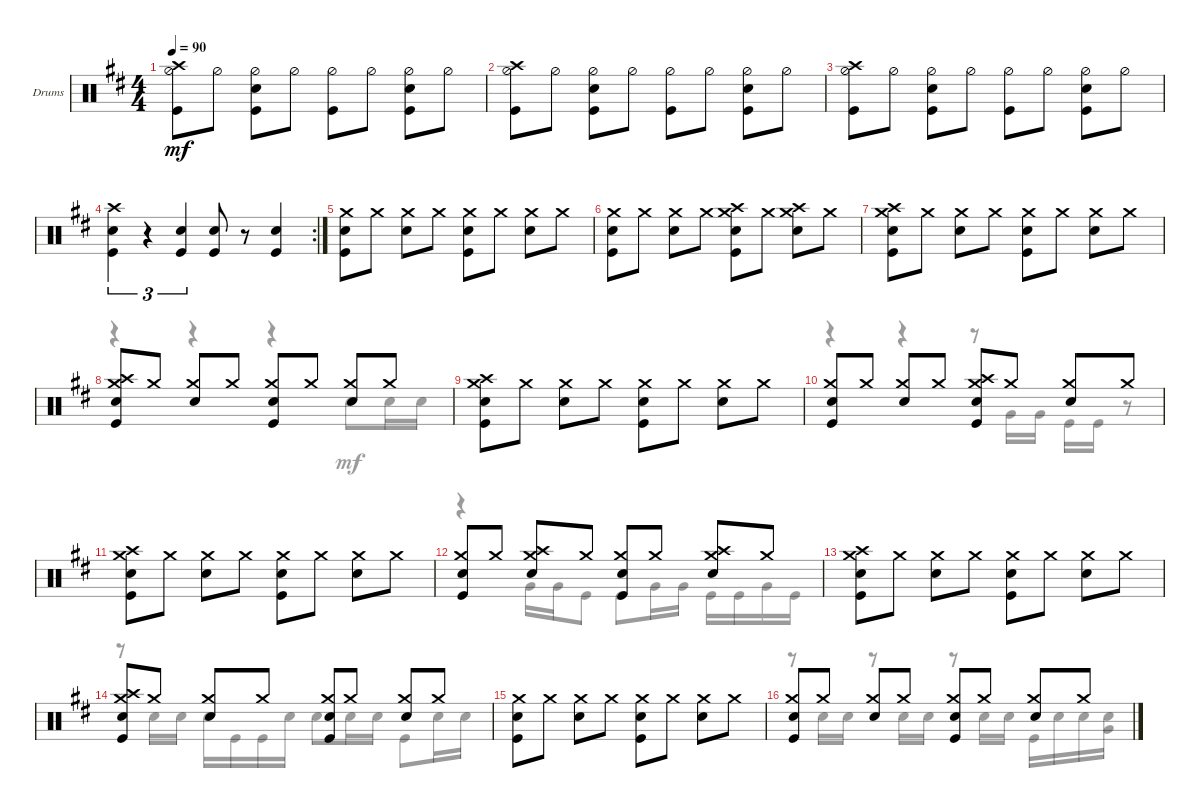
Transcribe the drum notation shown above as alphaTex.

\defaultSystemsLayout 4
\bracketExtendMode groupsimilarinstruments
\firstSystemTrackNameOrientation horizontal
\otherSystemsTrackNameOrientation horizontal
\track ("Drumkit" "Drums") {instrument percussion}
\staff {score}
\articulation defaults
\voice
\ts (4 4)
\tempo 90
\clef neutral
\ks bminor
("Crash high (hit)" "Hi-Hat (half)" "Kick (hit)").8{dy mf} "Hi-Hat (half)".8 ("Hi-Hat (half)" "Snare (hit) 2" "Kick (hit)").8 "Hi-Hat (half)".8 ("Hi-Hat (half)" "Kick (hit)").8 "Hi-Hat (half)".8 ("Hi-Hat (half)" "Snare (hit) 2" "Kick (hit)").8 "Hi-Hat (half)".8 |
("Crash high (hit)" "Hi-Hat (half)" "Kick (hit)").8 "Hi-Hat (half)".8 ("Hi-Hat (half)" "Snare (hit) 2" "Kick (hit)").8 "Hi-Hat (half)".8 ("Hi-Hat (half)" "Kick (hit)").8 "Hi-Hat (half)".8 ("Hi-Hat (half)" "Snare (hit) 2" "Kick (hit)").8 "Hi-Hat (half)".8 |
("Crash high (hit)" "Hi-Hat (half)" "Kick (hit)").8 "Hi-Hat (half)".8 ("Hi-Hat (half)" "Snare (hit) 2" "Kick (hit)").8 "Hi-Hat (half)".8 ("Hi-Hat (half)" "Kick (hit)").8 "Hi-Hat (half)".8 ("Hi-Hat (half)" "Snare (hit) 2" "Kick (hit)").8 "Hi-Hat (half)".8 |
\rc 2
("Kick (hit)" "Snare (hit) 2" "Crash high (hit)").4{tu (3 2)} r.4{tu (3 2)} ("Snare (hit) 2" "Kick (hit)").4{tu (3 2)} ("Snare (hit) 2" "Kick (hit)").8 r.8 ("Kick (hit)" "Snare (hit) 2").4 |
("Kick (hit)" "Snare (hit) 2" "Crash medium (hit)").8 "Crash medium (hit)".8 ("Snare (hit) 2" "Crash medium (hit)").8 "Crash medium (hit)".8 ("Kick (hit)" "Snare (hit) 2" "Crash medium (hit)").8 "Crash medium (hit)".8 ("Snare (hit) 2" "Crash medium (hit)").8 "Crash medium (hit)".8 |
("Kick (hit)" "Snare (hit) 2" "Crash medium (hit)").8 "Crash medium (hit)".8 ("Snare (hit) 2" "Crash medium (hit)").8 "Crash medium (hit)".8 ("Kick (hit)" "Snare (hit) 2" "Crash medium (hit)" "Crash high (hit)").8 "Crash medium (hit)".8 ("Snare (hit) 2" "Crash medium (hit)" "Crash high (hit)").8 "Crash medium (hit)".8 |
("Kick (hit)" "Snare (hit) 2" "Crash medium (hit)" "Crash high (hit)").8 "Crash medium (hit)".8 ("Snare (hit) 2" "Crash medium (hit)").8 "Crash medium (hit)".8 ("Kick (hit)" "Snare (hit) 2" "Crash medium (hit)").8 "Crash medium (hit)".8 ("Snare (hit) 2" "Crash medium (hit)").8 "Crash medium (hit)".8 |
("Kick (hit)" "Snare (hit) 2" "Crash medium (hit)" "Crash high (hit)").8 "Crash medium (hit)".8 ("Snare (hit) 2" "Crash medium (hit)").8 "Crash medium (hit)".8 ("Kick (hit)" "Snare (hit) 2" "Crash medium (hit)").8 "Crash medium (hit)".8 ("Snare (hit) 2" "Crash medium (hit)").8 "Crash medium (hit)".8 |
("Kick (hit)" "Snare (hit) 2" "Crash medium (hit)" "Crash high (hit)").8 "Crash medium (hit)".8 ("Snare (hit) 2" "Crash medium (hit)").8 "Crash medium (hit)".8 ("Kick (hit)" "Snare (hit) 2" "Crash medium (hit)").8 "Crash medium (hit)".8 ("Snare (hit) 2" "Crash medium (hit)").8 "Crash medium (hit)".8 |
("Kick (hit)" "Snare (hit) 2" "Crash medium (hit)").8 "Crash medium (hit)".8 ("Snare (hit) 2" "Crash medium (hit)").8 "Crash medium (hit)".8 ("Kick (hit)" "Snare (hit) 2" "Crash medium (hit)" "Crash high (hit)").8 "Crash medium (hit)".8 ("Snare (hit) 2" "Crash medium (hit)").8 "Crash medium (hit)".8 |
("Kick (hit)" "Snare (hit) 2" "Crash medium (hit)" "Crash high (hit)").8 "Crash medium (hit)".8 ("Snare (hit) 2" "Crash medium (hit)").8 "Crash medium (hit)".8 ("Kick (hit)" "Snare (hit) 2" "Crash medium (hit)").8 "Crash medium (hit)".8 ("Snare (hit) 2" "Crash medium (hit)").8 "Crash medium (hit)".8 |
("Kick (hit)" "Snare (hit) 2" "Crash medium (hit)").8 "Crash medium (hit)".8 ("Snare (hit) 2" "Crash medium (hit)" "Crash high (hit)").8 "Crash medium (hit)".8 ("Kick (hit)" "Snare (hit) 2" "Crash medium (hit)").8 "Crash medium (hit)".8 ("Snare (hit) 2" "Crash medium (hit)" "Crash high (hit)").8 "Crash medium (hit)".8 |
("Kick (hit)" "Snare (hit) 2" "Crash medium (hit)" "Crash high (hit)").8 "Crash medium (hit)".8 ("Snare (hit) 2" "Crash medium (hit)").8 "Crash medium (hit)".8 ("Kick (hit)" "Snare (hit) 2" "Crash medium (hit)").8 "Crash medium (hit)".8 ("Snare (hit) 2" "Crash medium (hit)").8 "Crash medium (hit)".8 |
("Kick (hit)" "Snare (hit) 2" "Crash medium (hit)" "Crash high (hit)").8 "Crash medium (hit)".8 ("Snare (hit) 2" "Crash medium (hit)").8 "Crash medium (hit)".8 ("Kick (hit)" "Snare (hit) 2" "Crash medium (hit)").8 "Crash medium (hit)".8 ("Snare (hit) 2" "Crash medium (hit)").8 "Crash medium (hit)".8 |
("Kick (hit)" "Snare (hit) 2" "Crash medium (hit)").8 "Crash medium (hit)".8 ("Snare (hit) 2" "Crash medium (hit)").8 "Crash medium (hit)".8 ("Kick (hit)" "Snare (hit) 2" "Crash medium (hit)").8 "Crash medium (hit)".8 ("Snare (hit) 2" "Crash medium (hit)").8 "Crash medium (hit)".8 |
("Kick (hit)" "Snare (hit) 2" "Crash medium (hit)").8 "Crash medium (hit)".8 ("Snare (hit) 2" "Crash medium (hit)").8 "Crash medium (hit)".8 ("Kick (hit)" "Snare (hit) 2" "Crash medium (hit)").8 "Crash medium (hit)".8 ("Snare (hit) 2" "Crash medium (hit)").8 "Crash medium (hit)".8
\voice
\clef neutral
\ottava regular
\simile none
\ks bminor
|
|
|
|
|
|
|
r.4 r.4 r.4 "Snare (hit) 2".8 "Snare (hit) 2".16 "Snare (hit) 2".16 |
|
r.4 r.4 r.8 "Very Low Tom (hit)".16 "Very Low Tom (hit)".16 "Kick (hit)".16 "Kick (hit)".16 r.8 |
|
r.4 "Very Low Tom (hit)".16 "Very Low Tom (hit)".16 "Kick (hit)".8 "Kick (hit)".8 "Very Low Tom (hit)".16 "Very Low Tom (hit)".16 "Kick (hit)".16 "Kick (hit)".16 "Very Low Tom (hit)".16 "Kick (hit)".16 |
|
r.8 "Snare (hit) 2".16 "Snare (hit) 2".16 "Snare (hit) 2".16 "Kick (hit)".16 "Kick (hit)".16 "Snare (hit) 2".16 "Snare (hit) 2".8 "Snare (hit) 2".16 "Snare (hit) 2".16 "Kick (hit)".8 "Snare (hit) 2".16 "Snare (hit) 2".16 |
|
r.8 "Snare (hit) 2".16 "Snare (hit) 2".16 r.8 "Snare (hit) 2".16 "Snare (hit) 2".16 r.8 "Snare (hit) 2".16 "Snare (hit) 2".16 "Kick (hit)".16 "Snare (hit) 2".16 "Snare (hit) 2".16 ("Snare (hit) 2" "Very Low Tom (hit)").16
